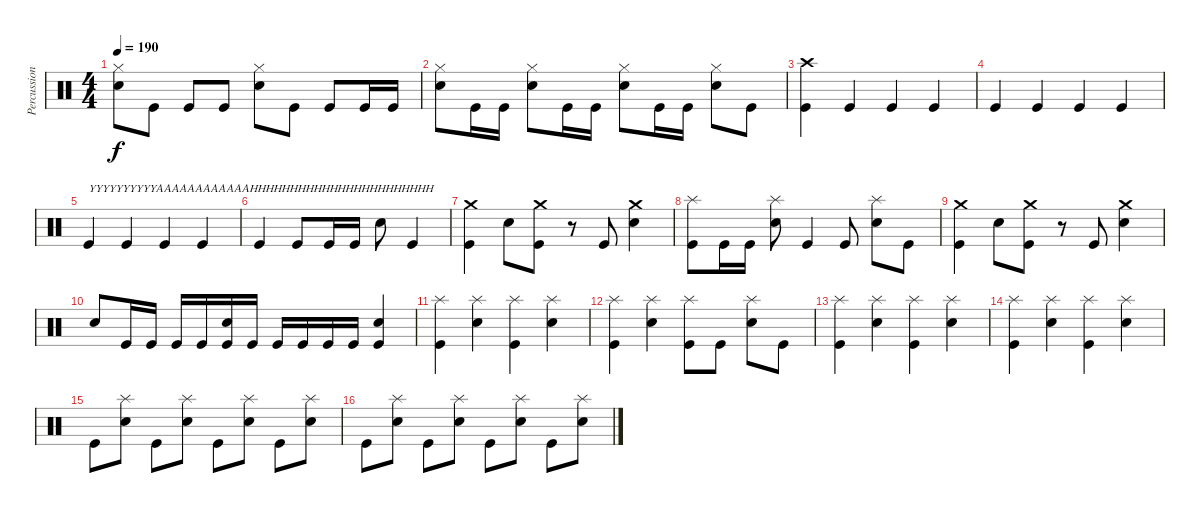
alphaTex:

\track ("Percussion" "Percussion") {instrument percussion}
\staff {score}
\articulation defaults
\ts (4 4)
\tempo 190
\clef neutral
\ks c
("Hi-Hat (closed)" "Electric Snare (hit)").8{dy f} "Kick (hit)".8 "Kick (hit)".8 "Kick (hit)".8 ("Hi-Hat (closed)" "Electric Snare (hit)").8 "Kick (hit)".8 "Kick (hit)".8 "Kick (hit)".16 "Kick (hit)".16 |
("Hi-Hat (closed)" "Electric Snare (hit)").8 "Kick (hit)".16 "Kick (hit)".16 ("Hi-Hat (closed)" "Electric Snare (hit)").8 "Kick (hit)".16 "Kick (hit)".16 ("Hi-Hat (closed)" "Electric Snare (hit)").8 "Kick (hit)".16 "Kick (hit)".16 ("Hi-Hat (closed)" "Electric Snare (hit)").8 "Kick (hit)".8 |
("Crash high (hit)" "Kick (hit)").4 "Kick (hit)".4 "Kick (hit)".4 "Kick (hit)".4 |
"Kick (hit)".4 "Kick (hit)".4 "Kick (hit)".4 "Kick (hit)".4 |
"Kick (hit)".4{txt "YYYYYYYYYYAAAAAAAAAAAAHHHHHHHHHHHHHHHHHHHHHHH"} "Kick (hit)".4 "Kick (hit)".4 "Kick (hit)".4 |
"Kick (hit)".4 "Kick (hit)".8 "Kick (hit)".16 "Kick (hit)".16 "Electric Snare (hit)".8 "Kick (hit)".4 |
("Crash medium (hit)" "Kick (hit)").4 "Electric Snare (hit)".8 ("Crash medium (hit)" "Kick (hit)").8 r.8 "Kick (hit)".8 ("Crash medium (hit)" "Electric Snare (hit)").4 |
("Splash (hit)" "Kick (hit)").8 "Kick (hit)".16 "Kick (hit)".16 ("Splash (hit)" "Electric Snare (hit)").8 "Kick (hit)".4 "Kick (hit)".8 ("Splash (hit)" "Electric Snare (hit)").8 "Kick (hit)".8 |
("Crash medium (hit)" "Kick (hit)").4 "Electric Snare (hit)".8 ("Crash medium (hit)" "Kick (hit)").8 r.8 "Kick (hit)".8 ("Crash medium (hit)" "Electric Snare (hit)").4 |
"Electric Snare (hit)".8 "Kick (hit)".16 "Kick (hit)".16 "Kick (hit)".16 "Kick (hit)".16 ("Electric Snare (hit)" "Kick (hit)").16 "Kick (hit)".16 "Kick (hit)".16 "Kick (hit)".16 "Kick (hit)".16 "Kick (hit)".16 ("Electric Snare (hit)" "Kick (hit)").4 |
("Splash (hit)" "Kick (hit)").4 ("Splash (hit)" "Electric Snare (hit)").4 ("Splash (hit)" "Kick (hit)").4 ("Splash (hit)" "Electric Snare (hit)").4 |
("Splash (hit)" "Kick (hit)").4 ("Splash (hit)" "Electric Snare (hit)").4 ("Splash (hit)" "Kick (hit)").8 "Kick (hit)".8 ("Splash (hit)" "Electric Snare (hit)").8 "Kick (hit)".8 |
("Splash (hit)" "Kick (hit)").4 ("Splash (hit)" "Electric Snare (hit)").4 ("Splash (hit)" "Kick (hit)").4 ("Splash (hit)" "Electric Snare (hit)").4 |
("Splash (hit)" "Kick (hit)").4 ("Splash (hit)" "Electric Snare (hit)").4 ("Splash (hit)" "Kick (hit)").4 ("Splash (hit)" "Electric Snare (hit)").4 |
"Kick (hit)".8 ("Splash (hit)" "Electric Snare (hit)").8 "Kick (hit)".8 ("Splash (hit)" "Electric Snare (hit)").8 "Kick (hit)".8 ("Splash (hit)" "Electric Snare (hit)").8 "Kick (hit)".8 ("Splash (hit)" "Electric Snare (hit)").8 |
"Kick (hit)".8 ("Splash (hit)" "Electric Snare (hit)").8 "Kick (hit)".8 ("Splash (hit)" "Electric Snare (hit)").8 "Kick (hit)".8 ("Splash (hit)" "Electric Snare (hit)").8 "Kick (hit)".8 ("Splash (hit)" "Electric Snare (hit)").8
